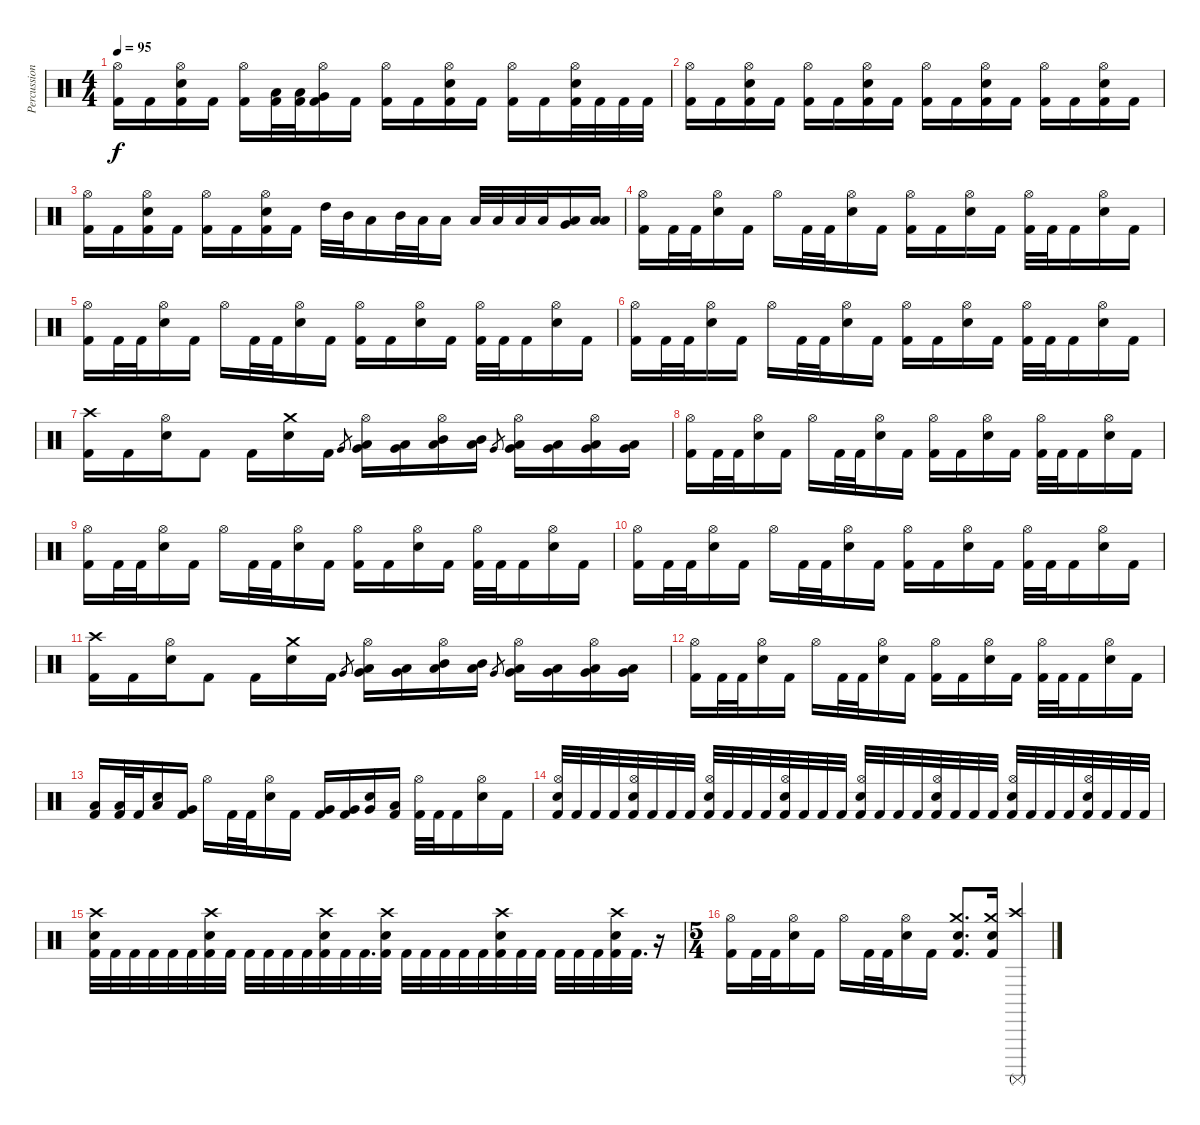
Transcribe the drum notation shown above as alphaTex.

\track ("Percussion" "Percussion") {instrument percussion}
\staff {score}
\articulation defaults
\ts (4 4)
\tempo 95
\clef neutral
\ks c
("Kick (hit) 2" "Hi-Hat (open)").16{dy f} "Kick (hit) 2".16 ("Kick (hit) 2" "Electric Snare (hit)" "Hi-Hat (open)").16 "Kick (hit) 2".16 ("Kick (hit) 2" "Hi-Hat (open)").16 ("Kick (hit) 2" "Low Tom (hit)").32 ("Kick (hit) 2" "Low Tom (hit)").32 ("Kick (hit) 2" "Very Low Tom (hit)" "Hi-Hat (open)").16 "Kick (hit) 2".16 ("Kick (hit) 2" "Hi-Hat (open)").16 "Kick (hit) 2".16 ("Kick (hit) 2" "Electric Snare (hit)" "Hi-Hat (open)").16 "Kick (hit) 2".16 ("Kick (hit) 2" "Hi-Hat (open)").16 "Kick (hit) 2".16 ("Kick (hit) 2" "Electric Snare (hit)" "Hi-Hat (open)").32 "Kick (hit) 2".32 "Kick (hit) 2".32 "Kick (hit) 2".32 |
("Kick (hit) 2" "Hi-Hat (open)").16 "Kick (hit) 2".16 ("Kick (hit) 2" "Electric Snare (hit)" "Hi-Hat (open)").16 "Kick (hit) 2".16 ("Kick (hit) 2" "Hi-Hat (open)").16 "Kick (hit) 2".16 ("Kick (hit) 2" "Electric Snare (hit)" "Hi-Hat (open)").16 "Kick (hit) 2".16 ("Kick (hit) 2" "Hi-Hat (open)").16 "Kick (hit) 2".16 ("Kick (hit) 2" "Electric Snare (hit)" "Hi-Hat (open)").16 "Kick (hit) 2".16 ("Kick (hit) 2" "Hi-Hat (open)").16 "Kick (hit) 2".16 ("Kick (hit) 2" "Electric Snare (hit)" "Hi-Hat (open)").16 "Kick (hit) 2".16 |
("Kick (hit) 2" "Hi-Hat (open)").16 "Kick (hit) 2".16 ("Kick (hit) 2" "Electric Snare (hit)" "Hi-Hat (open)").16 "Kick (hit) 2".16 ("Kick (hit) 2" "Hi-Hat (open)").16 "Kick (hit) 2".16 ("Kick (hit) 2" "Electric Snare (hit)" "Hi-Hat (open)").16 "Kick (hit) 2".16 "High Tom (hit)".32 "Mid Tom (hit)".32 "Low Tom (hit)".16 "Mid Tom (hit)".32 "Low Tom (hit)".32 "Low Tom (hit)".16 "Low Tom (hit)".32 "Low Tom (hit)".32 "Low Tom (hit)".32 "Low Tom (hit)".32 ("Very Low Tom (hit)" "Low Floor Tom (hit)").16 ("Low Tom (hit)" "Low Floor Tom (hit)").16 |
("Kick (hit) 2" "Hi-Hat (open)").16 "Kick (hit) 2".32 "Kick (hit) 2".32 ("Electric Snare (hit)" "Hi-Hat (open)").16 "Kick (hit) 2".16 "Hi-Hat (open)".16 "Kick (hit) 2".32 "Kick (hit) 2".32 ("Electric Snare (hit)" "Hi-Hat (open)").16 "Kick (hit) 2".16 ("Kick (hit) 2" "Hi-Hat (open)").16 "Kick (hit) 2".16 ("Electric Snare (hit)" "Hi-Hat (open)").16 "Kick (hit) 2".16 ("Kick (hit) 2" "Hi-Hat (open)").32 "Kick (hit) 2".32 "Kick (hit) 2".16 ("Electric Snare (hit)" "Hi-Hat (open)").16 "Kick (hit) 2".16 |
("Kick (hit) 2" "Hi-Hat (open)").16 "Kick (hit) 2".32 "Kick (hit) 2".32 ("Electric Snare (hit)" "Hi-Hat (open)").16 "Kick (hit) 2".16 "Hi-Hat (open)".16 "Kick (hit) 2".32 "Kick (hit) 2".32 ("Electric Snare (hit)" "Hi-Hat (open)").16 "Kick (hit) 2".16 ("Kick (hit) 2" "Hi-Hat (open)").16 "Kick (hit) 2".16 ("Electric Snare (hit)" "Hi-Hat (open)").16 "Kick (hit) 2".16 ("Kick (hit) 2" "Hi-Hat (open)").32 "Kick (hit) 2".32 "Kick (hit) 2".16 ("Electric Snare (hit)" "Hi-Hat (open)").16 "Kick (hit) 2".16 |
("Kick (hit) 2" "Hi-Hat (open)").16 "Kick (hit) 2".32 "Kick (hit) 2".32 ("Electric Snare (hit)" "Hi-Hat (open)").16 "Kick (hit) 2".16 "Hi-Hat (open)".16 "Kick (hit) 2".32 "Kick (hit) 2".32 ("Electric Snare (hit)" "Hi-Hat (open)").16 "Kick (hit) 2".16 ("Kick (hit) 2" "Hi-Hat (open)").16 "Kick (hit) 2".16 ("Electric Snare (hit)" "Hi-Hat (open)").16 "Kick (hit) 2".16 ("Kick (hit) 2" "Hi-Hat (open)").32 "Kick (hit) 2".32 "Kick (hit) 2".16 ("Electric Snare (hit)" "Hi-Hat (open)").16 "Kick (hit) 2".16 |
("Kick (hit) 2" "Crash high (hit)").16 "Kick (hit) 2".16 ("Electric Snare (hit)" "Hi-Hat (open)").16 "Kick (hit) 2".8 "Kick (hit) 2".16 ("Electric Snare (hit)" "Crash medium (hit)").16 "Kick (hit) 2".16 "Very Low Tom (hit)".8{gr} ("Low Tom (hit)" "Very Low Tom (hit)" "Hi-Hat (open)").16 ("Low Tom (hit)" "Very Low Tom (hit)").16 ("Mid Tom (hit)" "Low Floor Tom (hit)" "Hi-Hat (open)").16 ("Mid Tom (hit)" "Low Floor Tom (hit)").16 "Very Low Tom (hit)".8{gr} ("Low Tom (hit)" "Very Low Tom (hit)" "Hi-Hat (open)").16 ("Low Tom (hit)" "Very Low Tom (hit)").16 ("Low Floor Tom (hit)" "Very Low Tom (hit)" "Hi-Hat (open)").16 ("Low Floor Tom (hit)" "Very Low Tom (hit)").16 |
("Kick (hit) 2" "Hi-Hat (open)").16 "Kick (hit) 2".32 "Kick (hit) 2".32 ("Electric Snare (hit)" "Hi-Hat (open)").16 "Kick (hit) 2".16 "Hi-Hat (open)".16 "Kick (hit) 2".32 "Kick (hit) 2".32 ("Electric Snare (hit)" "Hi-Hat (open)").16 "Kick (hit) 2".16 ("Kick (hit) 2" "Hi-Hat (open)").16 "Kick (hit) 2".16 ("Electric Snare (hit)" "Hi-Hat (open)").16 "Kick (hit) 2".16 ("Kick (hit) 2" "Hi-Hat (open)").32 "Kick (hit) 2".32 "Kick (hit) 2".16 ("Electric Snare (hit)" "Hi-Hat (open)").16 "Kick (hit) 2".16 |
("Kick (hit) 2" "Hi-Hat (open)").16 "Kick (hit) 2".32 "Kick (hit) 2".32 ("Electric Snare (hit)" "Hi-Hat (open)").16 "Kick (hit) 2".16 "Hi-Hat (open)".16 "Kick (hit) 2".32 "Kick (hit) 2".32 ("Electric Snare (hit)" "Hi-Hat (open)").16 "Kick (hit) 2".16 ("Kick (hit) 2" "Hi-Hat (open)").16 "Kick (hit) 2".16 ("Electric Snare (hit)" "Hi-Hat (open)").16 "Kick (hit) 2".16 ("Kick (hit) 2" "Hi-Hat (open)").32 "Kick (hit) 2".32 "Kick (hit) 2".16 ("Electric Snare (hit)" "Hi-Hat (open)").16 "Kick (hit) 2".16 |
("Kick (hit) 2" "Hi-Hat (open)").16 "Kick (hit) 2".32 "Kick (hit) 2".32 ("Electric Snare (hit)" "Hi-Hat (open)").16 "Kick (hit) 2".16 "Hi-Hat (open)".16 "Kick (hit) 2".32 "Kick (hit) 2".32 ("Electric Snare (hit)" "Hi-Hat (open)").16 "Kick (hit) 2".16 ("Kick (hit) 2" "Hi-Hat (open)").16 "Kick (hit) 2".16 ("Electric Snare (hit)" "Hi-Hat (open)").16 "Kick (hit) 2".16 ("Kick (hit) 2" "Hi-Hat (open)").32 "Kick (hit) 2".32 "Kick (hit) 2".16 ("Electric Snare (hit)" "Hi-Hat (open)").16 "Kick (hit) 2".16 |
("Kick (hit) 2" "Crash high (hit)").16 "Kick (hit) 2".16 ("Electric Snare (hit)" "Hi-Hat (open)").16 "Kick (hit) 2".8 "Kick (hit) 2".16 ("Electric Snare (hit)" "Crash medium (hit)").16 "Kick (hit) 2".16 "Very Low Tom (hit)".8{gr} ("Low Tom (hit)" "Very Low Tom (hit)" "Hi-Hat (open)").16 ("Low Tom (hit)" "Very Low Tom (hit)").16 ("Mid Tom (hit)" "Low Floor Tom (hit)" "Hi-Hat (open)").16 ("Mid Tom (hit)" "Low Floor Tom (hit)").16 "Very Low Tom (hit)".8{gr} ("Low Tom (hit)" "Very Low Tom (hit)" "Hi-Hat (open)").16 ("Low Tom (hit)" "Very Low Tom (hit)").16 ("Low Floor Tom (hit)" "Very Low Tom (hit)" "Hi-Hat (open)").16 ("Low Floor Tom (hit)" "Very Low Tom (hit)").16 |
("Kick (hit) 2" "Hi-Hat (open)").16 "Kick (hit) 2".32 "Kick (hit) 2".32 ("Electric Snare (hit)" "Hi-Hat (open)").16 "Kick (hit) 2".16 "Hi-Hat (open)".16 "Kick (hit) 2".32 "Kick (hit) 2".32 ("Electric Snare (hit)" "Hi-Hat (open)").16 "Kick (hit) 2".16 ("Kick (hit) 2" "Hi-Hat (open)").16 "Kick (hit) 2".16 ("Electric Snare (hit)" "Hi-Hat (open)").16 "Kick (hit) 2".16 ("Kick (hit) 2" "Hi-Hat (open)").32 "Kick (hit) 2".32 "Kick (hit) 2".16 ("Electric Snare (hit)" "Hi-Hat (open)").16 "Kick (hit) 2".16 |
("Kick (hit) 2" "Low Tom (hit)").16 ("Kick (hit) 2" "Low Tom (hit)").32 "Kick (hit) 2".32 ("Electric Snare (hit)" "Low Tom (hit)").16 ("Kick (hit) 2" "Very Low Tom (hit)").16 "Hi-Hat (open)".16 "Kick (hit) 2".32 "Kick (hit) 2".32 ("Electric Snare (hit)" "Hi-Hat (open)").16 "Kick (hit) 2".16 ("Kick (hit) 2" "Very Low Tom (hit)").16 ("Kick (hit) 2" "Very Low Tom (hit)").16 ("Electric Snare (hit)" "Very Low Tom (hit)").16 ("Kick (hit) 2" "Low Floor Tom (hit)").16 ("Kick (hit) 2" "Hi-Hat (open)").32 "Kick (hit) 2".32 "Kick (hit) 2".16 ("Electric Snare (hit)" "Hi-Hat (open)").16 "Kick (hit) 2".16 |
("Kick (hit) 2" "Electric Snare (hit)" "Hi-Hat (open)").32 "Kick (hit) 2".32 "Kick (hit) 2".32 "Kick (hit) 2".32 ("Kick (hit) 2" "Electric Snare (hit)" "Hi-Hat (open)").32 "Kick (hit) 2".32 "Kick (hit) 2".32 "Kick (hit) 2".32 ("Kick (hit) 2" "Electric Snare (hit)" "Hi-Hat (open)").32 "Kick (hit) 2".32 "Kick (hit) 2".32 "Kick (hit) 2".32 ("Kick (hit) 2" "Electric Snare (hit)" "Hi-Hat (open)").32 "Kick (hit) 2".32 "Kick (hit) 2".32 "Kick (hit) 2".32 ("Kick (hit) 2" "Electric Snare (hit)" "Hi-Hat (open)").32 "Kick (hit) 2".32 "Kick (hit) 2".32 "Kick (hit) 2".32 ("Kick (hit) 2" "Electric Snare (hit)" "Hi-Hat (open)").32 "Kick (hit) 2".32 "Kick (hit) 2".32 "Kick (hit) 2".32 ("Kick (hit) 2" "Electric Snare (hit)" "Hi-Hat (open)").32 "Kick (hit) 2".32 "Kick (hit) 2".32 "Kick (hit) 2".32 ("Kick (hit) 2" "Hi-Hat (open)" "Electric Snare (hit)").32 "Kick (hit) 2".32 "Kick (hit) 2".32 "Kick (hit) 2".32 |
("Kick (hit) 2" "Electric Snare (hit)" "Crash high (hit)").32 "Kick (hit) 2".32 "Kick (hit) 2".32 "Kick (hit) 2".32 "Kick (hit) 2".32 "Kick (hit) 2".32 ("Kick (hit) 2" "Electric Snare (hit)" "Crash high (hit)").32 "Kick (hit) 2".32 "Kick (hit) 2".32 "Kick (hit) 2".32 "Kick (hit) 2".32 "Kick (hit) 2".32 ("Kick (hit) 2" "Electric Snare (hit)" "Crash high (hit)").32 "Kick (hit) 2".32 "Kick (hit) 2".32{d} ("Kick (hit) 2" "Crash high (hit)" "Electric Snare (hit)").32 "Kick (hit) 2".32 "Kick (hit) 2".32 "Kick (hit) 2".32 "Kick (hit) 2".32 "Kick (hit) 2".32 ("Kick (hit) 2" "Crash high (hit)" "Electric Snare (hit)").32 "Kick (hit) 2".32 "Kick (hit) 2".32 "Kick (hit) 2".32 "Kick (hit) 2".32 "Kick (hit) 2".32 ("Kick (hit) 2" "Crash high (hit)" "Electric Snare (hit)").32 "Kick (hit) 2".32{d} r.16 |
\ts (5 4)
("Kick (hit) 2" "Hi-Hat (open)").16 "Kick (hit) 2".32 "Kick (hit) 2".32 ("Electric Snare (hit)" "Hi-Hat (open)").16 "Kick (hit) 2".16 "Hi-Hat (open)".16 "Kick (hit) 2".32 "Kick (hit) 2".32 ("Electric Snare (hit)" "Hi-Hat (open)").16 "Kick (hit) 2".16 ("Snare (hit) 2" "Crash medium (hit)" "Kick (hit) 2").8{d} ("Snare (hit) 2" "Crash medium (hit)" "Kick (hit) 2").16 ("Surdo (mute)" "Crash high (hit)").4
